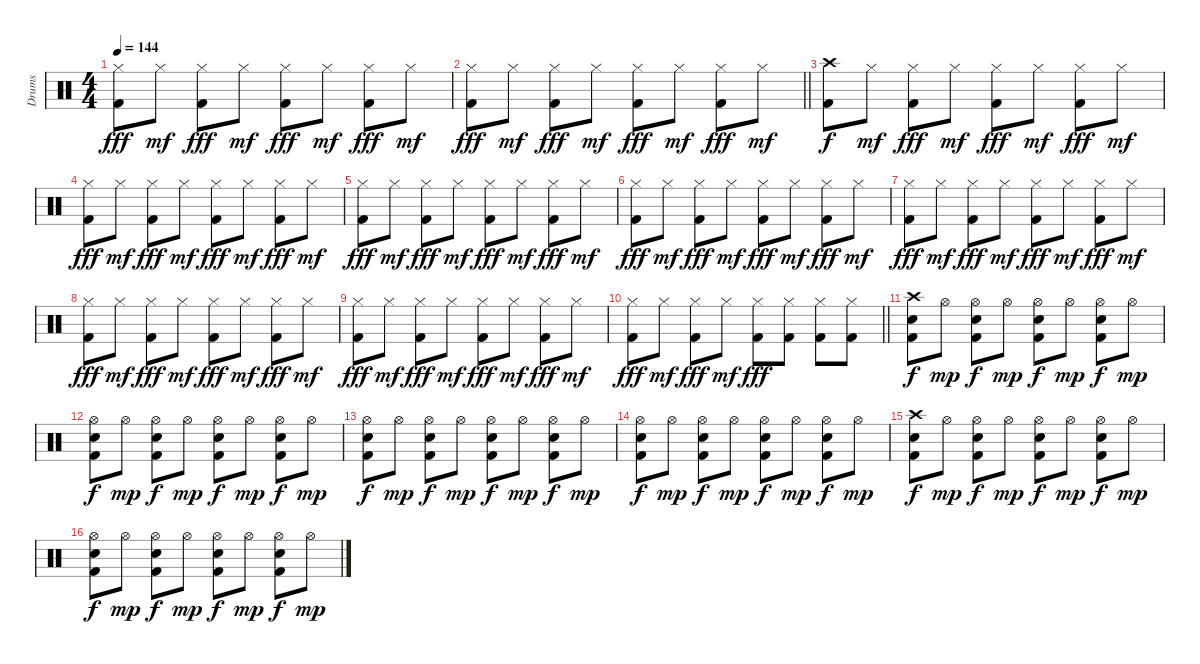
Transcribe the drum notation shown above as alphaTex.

\track ("Drums" "Drums") {instrument percussion}
\staff {score}
\articulation defaults
\ts (4 4)
\tempo 144
\clef neutral
\ks c
("Hi-Hat (closed)" "Kick (hit) 2").8{dy fff} "Hi-Hat (closed)".8{dy mf} ("Hi-Hat (closed)" "Kick (hit) 2").8{dy fff} "Hi-Hat (closed)".8{dy mf} ("Hi-Hat (closed)" "Kick (hit) 2").8{dy fff} "Hi-Hat (closed)".8{dy mf} ("Hi-Hat (closed)" "Kick (hit) 2").8{dy fff} "Hi-Hat (closed)".8{dy mf} |
\barLineRight lightlight
("Hi-Hat (closed)" "Kick (hit) 2").8{dy fff} "Hi-Hat (closed)".8{dy mf} ("Hi-Hat (closed)" "Kick (hit) 2").8{dy fff} "Hi-Hat (closed)".8{dy mf} ("Hi-Hat (closed)" "Kick (hit) 2").8{dy fff} "Hi-Hat (closed)".8{dy mf} ("Hi-Hat (closed)" "Kick (hit) 2").8{dy fff} "Hi-Hat (closed)".8{dy mf} |
("Crash high (hit)" "Kick (hit) 2").8{dy f} "Hi-Hat (closed)".8{dy mf} ("Hi-Hat (closed)" "Kick (hit) 2").8{dy fff} "Hi-Hat (closed)".8{dy mf} ("Hi-Hat (closed)" "Kick (hit) 2").8{dy fff} "Hi-Hat (closed)".8{dy mf} ("Hi-Hat (closed)" "Kick (hit) 2").8{dy fff} "Hi-Hat (closed)".8{dy mf} |
("Hi-Hat (closed)" "Kick (hit) 2").8{dy fff} "Hi-Hat (closed)".8{dy mf} ("Hi-Hat (closed)" "Kick (hit) 2").8{dy fff} "Hi-Hat (closed)".8{dy mf} ("Hi-Hat (closed)" "Kick (hit) 2").8{dy fff} "Hi-Hat (closed)".8{dy mf} ("Hi-Hat (closed)" "Kick (hit) 2").8{dy fff} "Hi-Hat (closed)".8{dy mf} |
("Hi-Hat (closed)" "Kick (hit) 2").8{dy fff} "Hi-Hat (closed)".8{dy mf} ("Hi-Hat (closed)" "Kick (hit) 2").8{dy fff} "Hi-Hat (closed)".8{dy mf} ("Hi-Hat (closed)" "Kick (hit) 2").8{dy fff} "Hi-Hat (closed)".8{dy mf} ("Hi-Hat (closed)" "Kick (hit) 2").8{dy fff} "Hi-Hat (closed)".8{dy mf} |
("Hi-Hat (closed)" "Kick (hit) 2").8{dy fff} "Hi-Hat (closed)".8{dy mf} ("Hi-Hat (closed)" "Kick (hit) 2").8{dy fff} "Hi-Hat (closed)".8{dy mf} ("Hi-Hat (closed)" "Kick (hit) 2").8{dy fff} "Hi-Hat (closed)".8{dy mf} ("Hi-Hat (closed)" "Kick (hit) 2").8{dy fff} "Hi-Hat (closed)".8{dy mf} |
("Hi-Hat (closed)" "Kick (hit) 2").8{dy fff} "Hi-Hat (closed)".8{dy mf} ("Hi-Hat (closed)" "Kick (hit) 2").8{dy fff} "Hi-Hat (closed)".8{dy mf} ("Hi-Hat (closed)" "Kick (hit) 2").8{dy fff} "Hi-Hat (closed)".8{dy mf} ("Hi-Hat (closed)" "Kick (hit) 2").8{dy fff} "Hi-Hat (closed)".8{dy mf} |
("Hi-Hat (closed)" "Kick (hit) 2").8{dy fff} "Hi-Hat (closed)".8{dy mf} ("Hi-Hat (closed)" "Kick (hit) 2").8{dy fff} "Hi-Hat (closed)".8{dy mf} ("Hi-Hat (closed)" "Kick (hit) 2").8{dy fff} "Hi-Hat (closed)".8{dy mf} ("Hi-Hat (closed)" "Kick (hit) 2").8{dy fff} "Hi-Hat (closed)".8{dy mf} |
("Hi-Hat (closed)" "Kick (hit) 2").8{dy fff} "Hi-Hat (closed)".8{dy mf} ("Hi-Hat (closed)" "Kick (hit) 2").8{dy fff} "Hi-Hat (closed)".8{dy mf} ("Hi-Hat (closed)" "Kick (hit) 2").8{dy fff} "Hi-Hat (closed)".8{dy mf} ("Hi-Hat (closed)" "Kick (hit) 2").8{dy fff} "Hi-Hat (closed)".8{dy mf} |
\barLineRight lightlight
("Hi-Hat (closed)" "Kick (hit) 2").8{dy fff} "Hi-Hat (closed)".8{dy mf} ("Hi-Hat (closed)" "Kick (hit) 2").8{dy fff} "Hi-Hat (closed)".8{dy mf} ("Hi-Hat (closed)" "Kick (hit) 2").8{dy fff} ("Hi-Hat (closed)" "Kick (hit) 2").8 ("Hi-Hat (closed)" "Kick (hit) 2").8 ("Hi-Hat (closed)" "Kick (hit) 2").8 |
("Crash high (hit)" "Snare (hit) 2" "Kick (hit) 2").8{dy f} "Hi-Hat (open)".8{dy mp} ("Hi-Hat (open)" "Snare (hit) 2" "Kick (hit) 2").8{dy f} "Hi-Hat (open)".8{dy mp} ("Hi-Hat (open)" "Snare (hit) 2" "Kick (hit) 2").8{dy f} "Hi-Hat (open)".8{dy mp} ("Hi-Hat (open)" "Snare (hit) 2" "Kick (hit) 2").8{dy f} "Hi-Hat (open)".8{dy mp} |
("Hi-Hat (open)" "Snare (hit) 2" "Kick (hit) 2").8{dy f} "Hi-Hat (open)".8{dy mp} ("Hi-Hat (open)" "Snare (hit) 2" "Kick (hit) 2").8{dy f} "Hi-Hat (open)".8{dy mp} ("Hi-Hat (open)" "Snare (hit) 2" "Kick (hit) 2").8{dy f} "Hi-Hat (open)".8{dy mp} ("Hi-Hat (open)" "Snare (hit) 2" "Kick (hit) 2").8{dy f} "Hi-Hat (open)".8{dy mp} |
("Hi-Hat (open)" "Snare (hit) 2" "Kick (hit) 2").8{dy f} "Hi-Hat (open)".8{dy mp} ("Hi-Hat (open)" "Snare (hit) 2" "Kick (hit) 2").8{dy f} "Hi-Hat (open)".8{dy mp} ("Hi-Hat (open)" "Snare (hit) 2" "Kick (hit) 2").8{dy f} "Hi-Hat (open)".8{dy mp} ("Hi-Hat (open)" "Snare (hit) 2" "Kick (hit) 2").8{dy f} "Hi-Hat (open)".8{dy mp} |
("Hi-Hat (open)" "Snare (hit) 2" "Kick (hit) 2").8{dy f} "Hi-Hat (open)".8{dy mp} ("Hi-Hat (open)" "Snare (hit) 2" "Kick (hit) 2").8{dy f} "Hi-Hat (open)".8{dy mp} ("Hi-Hat (open)" "Snare (hit) 2" "Kick (hit) 2").8{dy f} "Hi-Hat (open)".8{dy mp} ("Hi-Hat (open)" "Snare (hit) 2" "Kick (hit) 2").8{dy f} "Hi-Hat (open)".8{dy mp} |
("Crash high (hit)" "Snare (hit) 2" "Kick (hit) 2").8{dy f} "Hi-Hat (open)".8{dy mp} ("Hi-Hat (open)" "Snare (hit) 2" "Kick (hit) 2").8{dy f} "Hi-Hat (open)".8{dy mp} ("Hi-Hat (open)" "Snare (hit) 2" "Kick (hit) 2").8{dy f} "Hi-Hat (open)".8{dy mp} ("Hi-Hat (open)" "Snare (hit) 2" "Kick (hit) 2").8{dy f} "Hi-Hat (open)".8{dy mp} |
("Hi-Hat (open)" "Snare (hit) 2" "Kick (hit) 2").8{dy f} "Hi-Hat (open)".8{dy mp} ("Hi-Hat (open)" "Snare (hit) 2" "Kick (hit) 2").8{dy f} "Hi-Hat (open)".8{dy mp} ("Hi-Hat (open)" "Snare (hit) 2" "Kick (hit) 2").8{dy f} "Hi-Hat (open)".8{dy mp} ("Hi-Hat (open)" "Snare (hit) 2" "Kick (hit) 2").8{dy f} "Hi-Hat (open)".8{dy mp}
